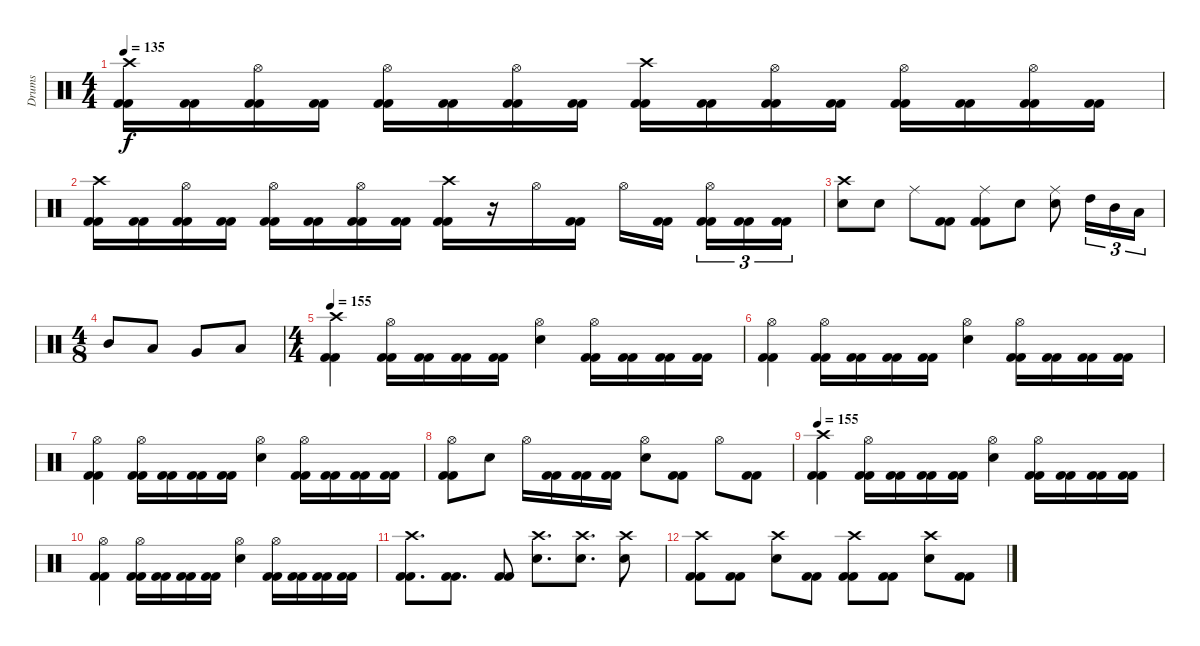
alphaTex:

\track ("Drums" "Drums") {instrument percussion}
\staff {score}
\articulation defaults
\ts (4 4)
\tempo 135
\clef neutral
\ks c
("Crash high (hit)" "Kick (hit) 2" "Kick (hit) 2").16{dy f} ("Kick (hit) 2" "Kick (hit) 2").16 ("Hi-Hat (open)" "Kick (hit) 2" "Kick (hit) 2").16 ("Kick (hit) 2" "Kick (hit) 2").16 ("Hi-Hat (open)" "Kick (hit) 2" "Kick (hit) 2").16 ("Kick (hit) 2" "Kick (hit) 2").16 ("Hi-Hat (open)" "Kick (hit) 2" "Kick (hit) 2").16 ("Kick (hit) 2" "Kick (hit) 2").16 ("Crash high (hit)" "Kick (hit) 2" "Kick (hit) 2").16 ("Kick (hit) 2" "Kick (hit) 2").16 ("Hi-Hat (open)" "Kick (hit) 2" "Kick (hit) 2").16 ("Kick (hit) 2" "Kick (hit) 2").16 ("Hi-Hat (open)" "Kick (hit) 2" "Kick (hit) 2").16 ("Kick (hit) 2" "Kick (hit) 2").16 ("Hi-Hat (open)" "Kick (hit) 2" "Kick (hit) 2").16 ("Kick (hit) 2" "Kick (hit) 2").16 |
("Crash high (hit)" "Kick (hit) 2" "Kick (hit) 2").16 ("Kick (hit) 2" "Kick (hit) 2").16 ("Hi-Hat (open)" "Kick (hit) 2" "Kick (hit) 2").16 ("Kick (hit) 2" "Kick (hit) 2").16 ("Hi-Hat (open)" "Kick (hit) 2" "Kick (hit) 2").16 ("Kick (hit) 2" "Kick (hit) 2").16 ("Hi-Hat (open)" "Kick (hit) 2" "Kick (hit) 2").16 ("Kick (hit) 2" "Kick (hit) 2").16 ("Crash high (hit)" "Kick (hit) 2" "Kick (hit) 2").16 r.16 "Hi-Hat (open)".16 ("Kick (hit) 2" "Kick (hit) 2").16 "Hi-Hat (open)".16 ("Kick (hit) 2" "Kick (hit) 2").16{beam splitsecondary} ("Hi-Hat (open)" "Kick (hit) 2" "Kick (hit) 2").16{tu (3 2)} ("Kick (hit) 2" "Kick (hit) 2").16{tu (3 2)} ("Kick (hit) 2" "Kick (hit) 2").16{tu (3 2)} |
("Crash high (hit)" "Electric Snare (hit)").8 "Electric Snare (hit)".8 "Ride (middle)".8 ("Kick (hit) 2" "Kick (hit) 2").8 ("Ride (middle)" "Kick (hit) 2" "Kick (hit) 2").8 "Electric Snare (hit)".8 ("Ride (middle)" "Electric Snare (hit)").8 "High Tom (hit)".16{tu (3 2)} "Mid Tom (hit)".16{tu (3 2)} "Low Tom (hit)".16{tu (3 2)} |
\ts (4 8)
"Mid Tom (hit)".8 "Low Tom (hit)".8 "Very Low Tom (hit)".8 "Low Floor Tom (hit)".8 |
\ts (4 4)
\tempo 155
("Crash high (hit)" "Kick (hit) 2" "Kick (hit) 2").4 ("Hi-Hat (open)" "Kick (hit) 2" "Kick (hit) 2").16 ("Kick (hit) 2" "Kick (hit) 2").16 ("Kick (hit) 2" "Kick (hit) 2").16 ("Kick (hit) 2" "Kick (hit) 2").16 ("Hi-Hat (open)" "Electric Snare (hit)").4 ("Hi-Hat (open)" "Kick (hit) 2" "Kick (hit) 2").16 ("Kick (hit) 2" "Kick (hit) 2").16 ("Kick (hit) 2" "Kick (hit) 2").16 ("Kick (hit) 2" "Kick (hit) 2").16 |
("Hi-Hat (open)" "Kick (hit) 2" "Kick (hit) 2").4 ("Hi-Hat (open)" "Kick (hit) 2" "Kick (hit) 2").16 ("Kick (hit) 2" "Kick (hit) 2").16 ("Kick (hit) 2" "Kick (hit) 2").16 ("Kick (hit) 2" "Kick (hit) 2").16 ("Hi-Hat (open)" "Electric Snare (hit)").4 ("Hi-Hat (open)" "Kick (hit) 2" "Kick (hit) 2").16 ("Kick (hit) 2" "Kick (hit) 2").16 ("Kick (hit) 2" "Kick (hit) 2").16 ("Kick (hit) 2" "Kick (hit) 2").16 |
("Hi-Hat (open)" "Kick (hit) 2" "Kick (hit) 2").4 ("Hi-Hat (open)" "Kick (hit) 2" "Kick (hit) 2").16 ("Kick (hit) 2" "Kick (hit) 2").16 ("Kick (hit) 2" "Kick (hit) 2").16 ("Kick (hit) 2" "Kick (hit) 2").16 ("Hi-Hat (open)" "Electric Snare (hit)").4 ("Hi-Hat (open)" "Kick (hit) 2" "Kick (hit) 2").16 ("Kick (hit) 2" "Kick (hit) 2").16 ("Kick (hit) 2" "Kick (hit) 2").16 ("Kick (hit) 2" "Kick (hit) 2").16 |
("Hi-Hat (open)" "Kick (hit) 2" "Kick (hit) 2").8 "Electric Snare (hit)".8 "Hi-Hat (open)".16 ("Kick (hit) 2" "Kick (hit) 2").16 ("Kick (hit) 2" "Kick (hit) 2").16 ("Kick (hit) 2" "Kick (hit) 2").16 ("Hi-Hat (open)" "Electric Snare (hit)").8 ("Kick (hit) 2" "Kick (hit) 2").8 "Hi-Hat (open)".8 ("Kick (hit) 2" "Kick (hit) 2").8 |
\tempo 155
("Crash high (hit)" "Kick (hit) 2" "Kick (hit) 2").4 ("Hi-Hat (open)" "Kick (hit) 2" "Kick (hit) 2").16 ("Kick (hit) 2" "Kick (hit) 2").16 ("Kick (hit) 2" "Kick (hit) 2").16 ("Kick (hit) 2" "Kick (hit) 2").16 ("Hi-Hat (open)" "Electric Snare (hit)").4 ("Hi-Hat (open)" "Kick (hit) 2" "Kick (hit) 2").16 ("Kick (hit) 2" "Kick (hit) 2").16 ("Kick (hit) 2" "Kick (hit) 2").16 ("Kick (hit) 2" "Kick (hit) 2").16 |
("Hi-Hat (open)" "Kick (hit) 2" "Kick (hit) 2").4 ("Hi-Hat (open)" "Kick (hit) 2" "Kick (hit) 2").16 ("Kick (hit) 2" "Kick (hit) 2").16 ("Kick (hit) 2" "Kick (hit) 2").16 ("Kick (hit) 2" "Kick (hit) 2").16 ("Hi-Hat (open)" "Electric Snare (hit)").4 ("Hi-Hat (open)" "Kick (hit) 2" "Kick (hit) 2").16 ("Kick (hit) 2" "Kick (hit) 2").16 ("Kick (hit) 2" "Kick (hit) 2").16 ("Kick (hit) 2" "Kick (hit) 2").16 |
("Crash high (hit)" "Kick (hit) 2" "Kick (hit) 2").8{d} ("Kick (hit) 2" "Kick (hit) 2").8{d} ("Kick (hit) 2" "Kick (hit) 2").8 ("Crash high (hit)" "Electric Snare (hit)").8{d} ("Crash high (hit)" "Electric Snare (hit)").8{d} ("Crash high (hit)" "Electric Snare (hit)").8 |
("Crash high (hit)" "Kick (hit) 2" "Kick (hit) 2").8 ("Kick (hit) 2" "Kick (hit) 2").8 ("Crash high (hit)" "Electric Snare (hit)").8 ("Kick (hit) 2" "Kick (hit) 2").8 ("Crash high (hit)" "Kick (hit) 2" "Kick (hit) 2").8 ("Kick (hit) 2" "Kick (hit) 2").8 ("Crash high (hit)" "Electric Snare (hit)").8 ("Kick (hit) 2" "Kick (hit) 2").8
